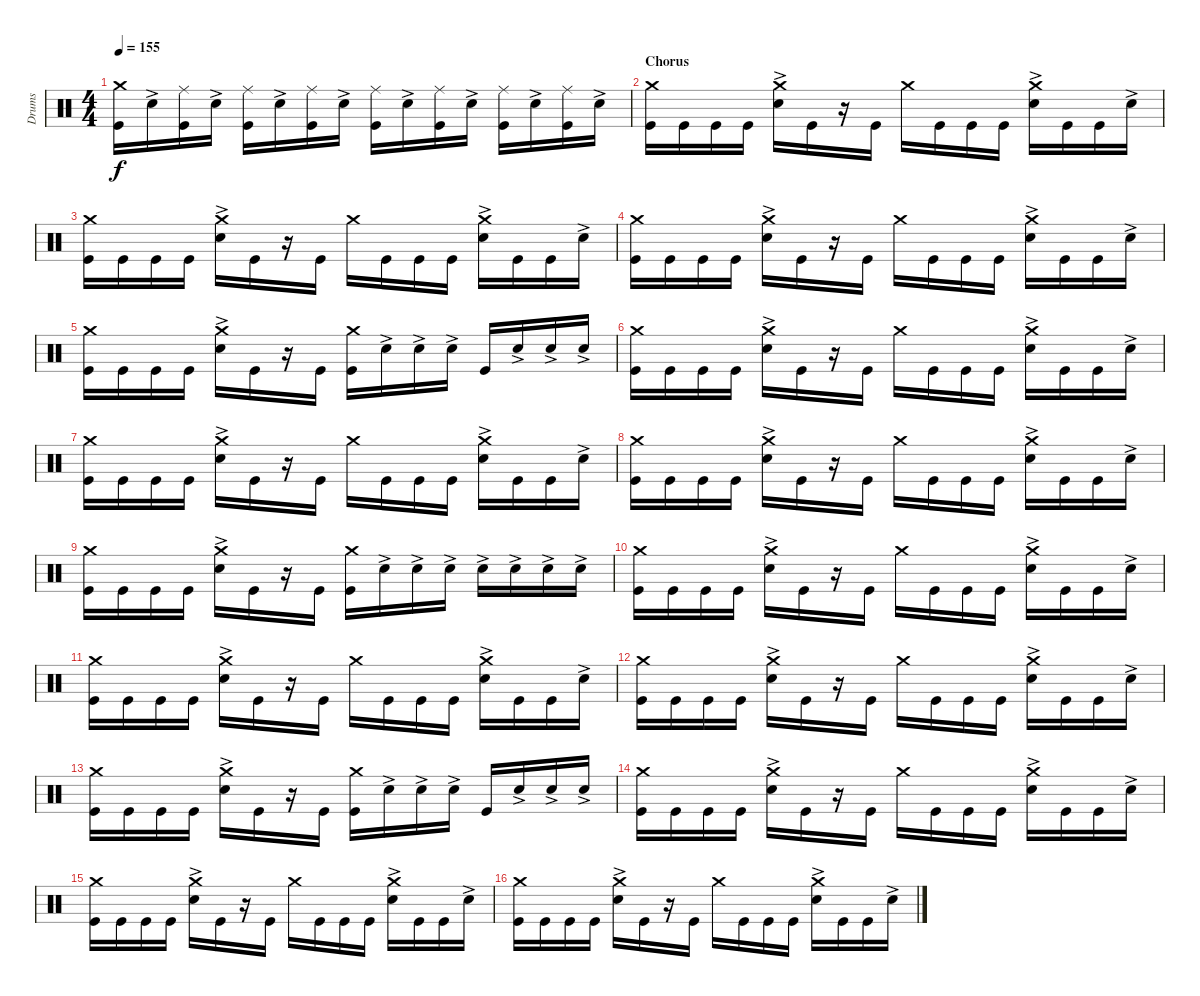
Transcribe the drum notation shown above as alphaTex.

\track ("Drums" "Drums") {instrument percussion}
\staff {score}
\articulation defaults
\ts (4 4)
\tempo 155
\clef neutral
\ks c
("Kick (hit)" "Crash medium (hit)").16{dy f} "Snare (hit) 2"{ac}.16 ("Kick (hit)" "Ride (middle)").16 "Snare (hit) 2"{ac}.16 ("Kick (hit)" "Ride (middle)").16 "Snare (hit) 2"{ac}.16 ("Kick (hit)" "Ride (middle)").16 "Snare (hit) 2"{ac}.16 ("Kick (hit)" "Ride (middle)").16 "Snare (hit) 2"{ac}.16 ("Kick (hit)" "Ride (middle)").16 "Snare (hit) 2"{ac}.16 ("Kick (hit)" "Ride (middle)").16 "Snare (hit) 2"{ac}.16 ("Kick (hit)" "Ride (middle)").16 "Snare (hit) 2"{ac}.16 |
\section ("" "Chorus")
("Crash medium (hit)" "Kick (hit)").16 "Kick (hit)".16 "Kick (hit)".16 "Kick (hit)".16 ("Crash medium (hit)" "Snare (hit) 2"{ac}).16 "Kick (hit)".16 r.16 "Kick (hit)".16 "Crash medium (hit)".16 "Kick (hit)".16 "Kick (hit)".16 "Kick (hit)".16 ("Crash medium (hit)" "Snare (hit) 2"{ac}).16 "Kick (hit)".16 "Kick (hit)".16 "Snare (hit) 2"{ac}.16 |
("Crash medium (hit)" "Kick (hit)").16 "Kick (hit)".16 "Kick (hit)".16 "Kick (hit)".16 ("Crash medium (hit)" "Snare (hit) 2"{ac}).16 "Kick (hit)".16 r.16 "Kick (hit)".16 "Crash medium (hit)".16 "Kick (hit)".16 "Kick (hit)".16 "Kick (hit)".16 ("Crash medium (hit)" "Snare (hit) 2"{ac}).16 "Kick (hit)".16 "Kick (hit)".16 "Snare (hit) 2"{ac}.16 |
("Crash medium (hit)" "Kick (hit)").16 "Kick (hit)".16 "Kick (hit)".16 "Kick (hit)".16 ("Crash medium (hit)" "Snare (hit) 2"{ac}).16 "Kick (hit)".16 r.16 "Kick (hit)".16 "Crash medium (hit)".16 "Kick (hit)".16 "Kick (hit)".16 "Kick (hit)".16 ("Crash medium (hit)" "Snare (hit) 2"{ac}).16 "Kick (hit)".16 "Kick (hit)".16 "Snare (hit) 2"{ac}.16 |
("Crash medium (hit)" "Kick (hit)").16 "Kick (hit)".16 "Kick (hit)".16 "Kick (hit)".16 ("Crash medium (hit)" "Snare (hit) 2"{ac}).16 "Kick (hit)".16 r.16 "Kick (hit)".16 ("Kick (hit)" "Crash medium (hit)").16 "Snare (hit) 2"{ac}.16 "Snare (hit) 2"{ac}.16 "Snare (hit) 2"{ac}.16 "Kick (hit)".16 "Snare (hit) 2"{ac}.16 "Snare (hit) 2"{ac}.16 "Snare (hit) 2"{ac}.16 |
("Crash medium (hit)" "Kick (hit)").16 "Kick (hit)".16 "Kick (hit)".16 "Kick (hit)".16 ("Crash medium (hit)" "Snare (hit) 2"{ac}).16 "Kick (hit)".16 r.16 "Kick (hit)".16 "Crash medium (hit)".16 "Kick (hit)".16 "Kick (hit)".16 "Kick (hit)".16 ("Crash medium (hit)" "Snare (hit) 2"{ac}).16 "Kick (hit)".16 "Kick (hit)".16 "Snare (hit) 2"{ac}.16 |
("Crash medium (hit)" "Kick (hit)").16 "Kick (hit)".16 "Kick (hit)".16 "Kick (hit)".16 ("Crash medium (hit)" "Snare (hit) 2"{ac}).16 "Kick (hit)".16 r.16 "Kick (hit)".16 "Crash medium (hit)".16 "Kick (hit)".16 "Kick (hit)".16 "Kick (hit)".16 ("Crash medium (hit)" "Snare (hit) 2"{ac}).16 "Kick (hit)".16 "Kick (hit)".16 "Snare (hit) 2"{ac}.16 |
("Crash medium (hit)" "Kick (hit)").16 "Kick (hit)".16 "Kick (hit)".16 "Kick (hit)".16 ("Crash medium (hit)" "Snare (hit) 2"{ac}).16 "Kick (hit)".16 r.16 "Kick (hit)".16 "Crash medium (hit)".16 "Kick (hit)".16 "Kick (hit)".16 "Kick (hit)".16 ("Crash medium (hit)" "Snare (hit) 2"{ac}).16 "Kick (hit)".16 "Kick (hit)".16 "Snare (hit) 2"{ac}.16 |
("Crash medium (hit)" "Kick (hit)").16 "Kick (hit)".16 "Kick (hit)".16 "Kick (hit)".16 ("Crash medium (hit)" "Snare (hit) 2"{ac}).16 "Kick (hit)".16 r.16 "Kick (hit)".16 ("Kick (hit)" "Crash medium (hit)").16 "Snare (hit) 2"{ac}.16 "Snare (hit) 2"{ac}.16 "Snare (hit) 2"{ac}.16 "Snare (hit) 2"{ac}.16 "Snare (hit) 2"{ac}.16 "Snare (hit) 2"{ac}.16 "Snare (hit) 2"{ac}.16 |
("Crash medium (hit)" "Kick (hit)").16 "Kick (hit)".16 "Kick (hit)".16 "Kick (hit)".16 ("Crash medium (hit)" "Snare (hit) 2"{ac}).16 "Kick (hit)".16 r.16 "Kick (hit)".16 "Crash medium (hit)".16 "Kick (hit)".16 "Kick (hit)".16 "Kick (hit)".16 ("Crash medium (hit)" "Snare (hit) 2"{ac}).16 "Kick (hit)".16 "Kick (hit)".16 "Snare (hit) 2"{ac}.16 |
("Crash medium (hit)" "Kick (hit)").16 "Kick (hit)".16 "Kick (hit)".16 "Kick (hit)".16 ("Crash medium (hit)" "Snare (hit) 2"{ac}).16 "Kick (hit)".16 r.16 "Kick (hit)".16 "Crash medium (hit)".16 "Kick (hit)".16 "Kick (hit)".16 "Kick (hit)".16 ("Crash medium (hit)" "Snare (hit) 2"{ac}).16 "Kick (hit)".16 "Kick (hit)".16 "Snare (hit) 2"{ac}.16 |
("Crash medium (hit)" "Kick (hit)").16 "Kick (hit)".16 "Kick (hit)".16 "Kick (hit)".16 ("Crash medium (hit)" "Snare (hit) 2"{ac}).16 "Kick (hit)".16 r.16 "Kick (hit)".16 "Crash medium (hit)".16 "Kick (hit)".16 "Kick (hit)".16 "Kick (hit)".16 ("Crash medium (hit)" "Snare (hit) 2"{ac}).16 "Kick (hit)".16 "Kick (hit)".16 "Snare (hit) 2"{ac}.16 |
("Crash medium (hit)" "Kick (hit)").16 "Kick (hit)".16 "Kick (hit)".16 "Kick (hit)".16 ("Crash medium (hit)" "Snare (hit) 2"{ac}).16 "Kick (hit)".16 r.16 "Kick (hit)".16 ("Kick (hit)" "Crash medium (hit)").16 "Snare (hit) 2"{ac}.16 "Snare (hit) 2"{ac}.16 "Snare (hit) 2"{ac}.16 "Kick (hit)".16 "Snare (hit) 2"{ac}.16 "Snare (hit) 2"{ac}.16 "Snare (hit) 2"{ac}.16 |
("Crash medium (hit)" "Kick (hit)").16 "Kick (hit)".16 "Kick (hit)".16 "Kick (hit)".16 ("Crash medium (hit)" "Snare (hit) 2"{ac}).16 "Kick (hit)".16 r.16 "Kick (hit)".16 "Crash medium (hit)".16 "Kick (hit)".16 "Kick (hit)".16 "Kick (hit)".16 ("Crash medium (hit)" "Snare (hit) 2"{ac}).16 "Kick (hit)".16 "Kick (hit)".16 "Snare (hit) 2"{ac}.16 |
("Crash medium (hit)" "Kick (hit)").16 "Kick (hit)".16 "Kick (hit)".16 "Kick (hit)".16 ("Crash medium (hit)" "Snare (hit) 2"{ac}).16 "Kick (hit)".16 r.16 "Kick (hit)".16 "Crash medium (hit)".16 "Kick (hit)".16 "Kick (hit)".16 "Kick (hit)".16 ("Crash medium (hit)" "Snare (hit) 2"{ac}).16 "Kick (hit)".16 "Kick (hit)".16 "Snare (hit) 2"{ac}.16 |
("Crash medium (hit)" "Kick (hit)").16 "Kick (hit)".16 "Kick (hit)".16 "Kick (hit)".16 ("Crash medium (hit)" "Snare (hit) 2"{ac}).16 "Kick (hit)".16 r.16 "Kick (hit)".16 "Crash medium (hit)".16 "Kick (hit)".16 "Kick (hit)".16 "Kick (hit)".16 ("Crash medium (hit)" "Snare (hit) 2"{ac}).16 "Kick (hit)".16 "Kick (hit)".16 "Snare (hit) 2"{ac}.16
